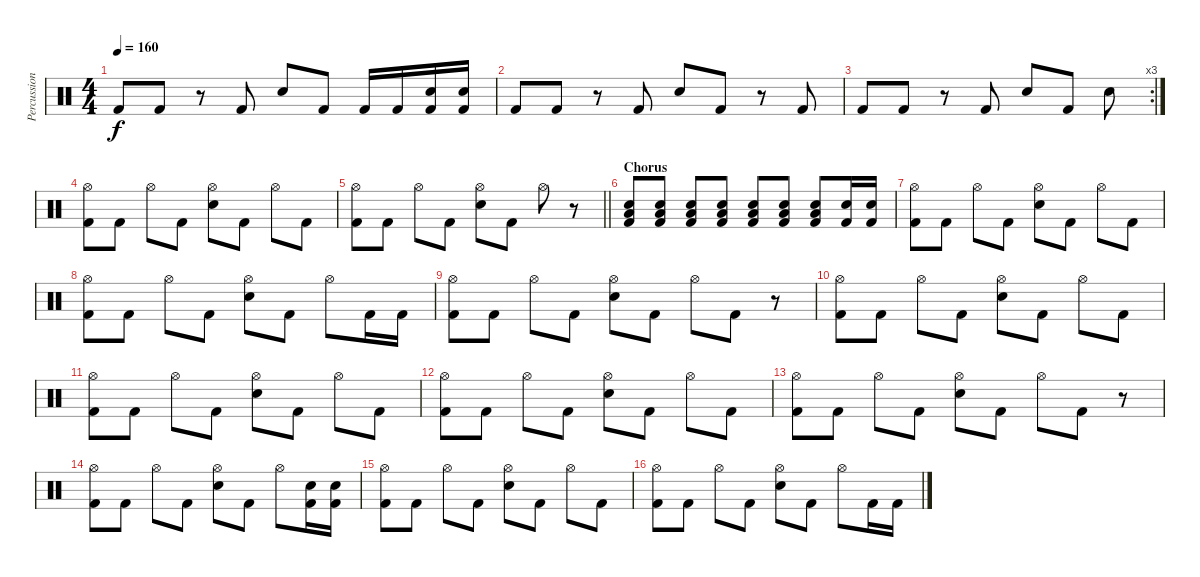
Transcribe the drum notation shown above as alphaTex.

\track ("Percussion" "Percussion") {instrument percussion}
\staff {score}
\articulation defaults
\ts (4 4)
\section ("" "")
\tempo 160
\clef neutral
\ks c "Kick (hit) 2".8{dy f} "Kick (hit) 2".8
r.8 "Kick (hit) 2".8 "Snare (hit) 2".8 "Kick (hit) 2".8 "Kick (hit) 2".16 "Kick (hit) 2".16 ("Electric Snare (hit)" "Kick (hit) 2").16 ("Electric Snare (hit)" "Kick (hit) 2").16 |
"Kick (hit) 2".8 "Kick (hit) 2".8 r.8 "Kick (hit) 2".8 "Snare (hit) 2".8 "Kick (hit) 2".8 r.8 "Kick (hit) 2".8 |
\rc 3 "Kick (hit) 2".8 "Kick (hit) 2".8
r.8 "Kick (hit) 2".8 "Snare (hit) 2".8 "Kick (hit) 2".8 "Snare (hit) 2".8 |
("Hi-Hat (open)" "Kick (hit) 2").8 "Kick (hit) 2".8 "Hi-Hat (open)".8 "Kick (hit) 2".8 ("Hi-Hat (open)" "Snare (hit) 2").8 "Kick (hit) 2".8 "Hi-Hat (open)".8 "Kick (hit) 2".8 |
\barLineRight lightlight
("Hi-Hat (open)" "Kick (hit) 2").8 "Kick (hit) 2".8 "Hi-Hat (open)".8 "Kick (hit) 2".8 ("Hi-Hat (open)" "Snare (hit) 2").8 "Kick (hit) 2".8 "Hi-Hat (open)".8 r.8 |
\section ("" "Chorus")
("Low Floor Tom (hit)" "Electric Snare (hit)" "Kick (hit) 2").8 ("Low Floor Tom (hit)" "Electric Snare (hit)" "Kick (hit) 2").8 ("Low Floor Tom (hit)" "Electric Snare (hit)" "Kick (hit) 2").8 ("Low Floor Tom (hit)" "Electric Snare (hit)" "Kick (hit) 2").8 ("Low Floor Tom (hit)" "Electric Snare (hit)" "Kick (hit) 2").8 ("Low Floor Tom (hit)" "Electric Snare (hit)" "Kick (hit) 2").8 ("Low Floor Tom (hit)" "Electric Snare (hit)" "Kick (hit) 2").8 ("Electric Snare (hit)" "Kick (hit) 2").16 ("Electric Snare (hit)" "Kick (hit) 2").16 |
("Hi-Hat (open)" "Kick (hit) 2").8 "Kick (hit) 2".8 "Hi-Hat (open)".8 "Kick (hit) 2".8 ("Hi-Hat (open)" "Snare (hit) 2").8 "Kick (hit) 2".8 "Hi-Hat (open)".8 "Kick (hit) 2".8 |
("Hi-Hat (open)" "Kick (hit) 2").8 "Kick (hit) 2".8 "Hi-Hat (open)".8 "Kick (hit) 2".8 ("Hi-Hat (open)" "Snare (hit) 2").8 "Kick (hit) 2".8 "Hi-Hat (open)".8 "Kick (hit) 2".16 "Kick (hit) 2".16 |
("Hi-Hat (open)" "Kick (hit) 2").8 "Kick (hit) 2".8 "Hi-Hat (open)".8 "Kick (hit) 2".8 ("Hi-Hat (open)" "Snare (hit) 2").8 "Kick (hit) 2".8 "Hi-Hat (open)".8 "Kick (hit) 2".8 r.8 |
("Hi-Hat (open)" "Kick (hit) 2").8 "Kick (hit) 2".8 "Hi-Hat (open)".8 "Kick (hit) 2".8 ("Hi-Hat (open)" "Snare (hit) 2").8 "Kick (hit) 2".8 "Hi-Hat (open)".8 "Kick (hit) 2".8 |
("Hi-Hat (open)" "Kick (hit) 2").8 "Kick (hit) 2".8 "Hi-Hat (open)".8 "Kick (hit) 2".8 ("Hi-Hat (open)" "Snare (hit) 2").8 "Kick (hit) 2".8 "Hi-Hat (open)".8 "Kick (hit) 2".8 |
("Hi-Hat (open)" "Kick (hit) 2").8 "Kick (hit) 2".8 "Hi-Hat (open)".8 "Kick (hit) 2".8 ("Hi-Hat (open)" "Snare (hit) 2").8 "Kick (hit) 2".8 "Hi-Hat (open)".8 "Kick (hit) 2".8 |
("Hi-Hat (open)" "Kick (hit) 2").8 "Kick (hit) 2".8 "Hi-Hat (open)".8 "Kick (hit) 2".8 ("Hi-Hat (open)" "Snare (hit) 2").8 "Kick (hit) 2".8 "Hi-Hat (open)".8 "Kick (hit) 2".8 r.8 |
("Hi-Hat (open)" "Kick (hit) 2").8 "Kick (hit) 2".8 "Hi-Hat (open)".8 "Kick (hit) 2".8 ("Hi-Hat (open)" "Snare (hit) 2").8 "Kick (hit) 2".8 "Hi-Hat (open)".8 ("Kick (hit) 2" "Electric Snare (hit)").16 ("Kick (hit) 2" "Electric Snare (hit)").16 |
("Hi-Hat (open)" "Kick (hit) 2").8 "Kick (hit) 2".8 "Hi-Hat (open)".8 "Kick (hit) 2".8 ("Hi-Hat (open)" "Snare (hit) 2").8 "Kick (hit) 2".8 "Hi-Hat (open)".8 "Kick (hit) 2".8 |
("Hi-Hat (open)" "Kick (hit) 2").8 "Kick (hit) 2".8 "Hi-Hat (open)".8 "Kick (hit) 2".8 ("Hi-Hat (open)" "Snare (hit) 2").8 "Kick (hit) 2".8 "Hi-Hat (open)".8 "Kick (hit) 2".16 "Kick (hit) 2".16
